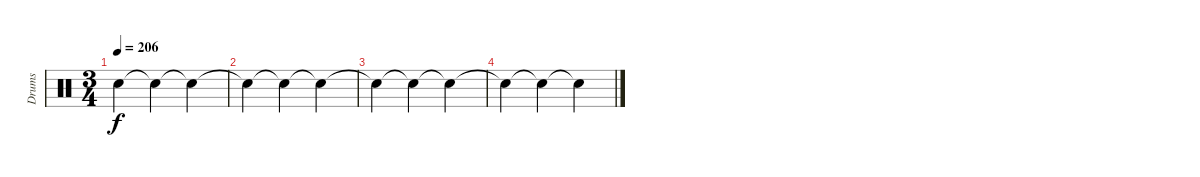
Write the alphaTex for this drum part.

\track ("Drums" "Drums") {instrument percussion}
\staff {score}
\articulation defaults
\ts (3 4)
\tempo 206
\clef neutral
\ks c "Snare (hit)"{t}.4{dy f} "Snare (hit)"{t}.4 "Snare (hit)"{t}.4
|
"Snare (hit)"{t}.4 "Snare (hit)"{t}.4 "Snare (hit)"{t}.4 |
"Snare (hit)"{t}.4 "Snare (hit)"{t}.4 "Snare (hit)"{t}.4 |
"Snare (hit)"{t}.4 "Snare (hit)"{t}.4 "Snare (hit)"{t}.4
